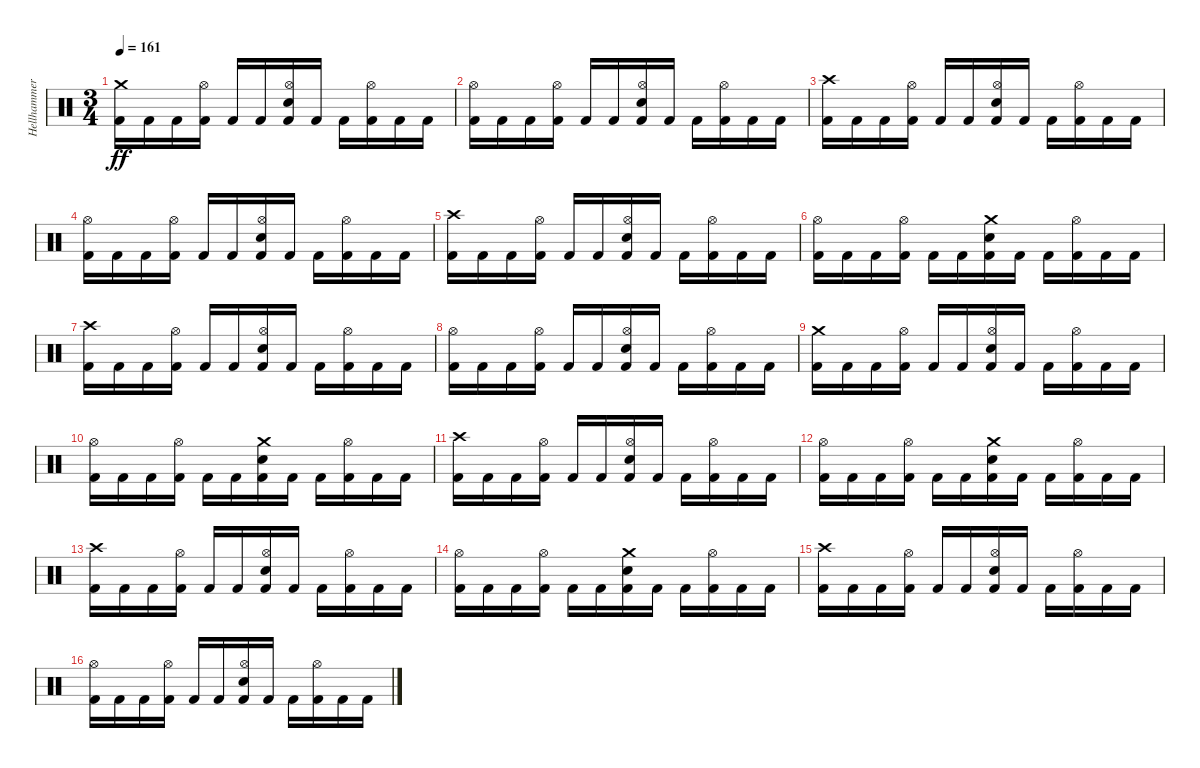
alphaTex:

\track ("Hellhammer" "Hellhammer") {instrument percussion}
\staff {score}
\articulation defaults
\ts (3 4)
\tempo 161
\clef neutral
\ks c
("Crash medium (hit)" "Kick (hit) 2").16{dy ff} "Kick (hit) 2".16 "Kick (hit) 2".16 ("Hi-Hat (open)" "Kick (hit) 2").16 "Kick (hit) 2".16 "Kick (hit) 2".16 ("Hi-Hat (open)" "Snare (hit) 2" "Kick (hit) 2").16 "Kick (hit) 2".16 "Kick (hit) 2".16 ("Hi-Hat (open)" "Kick (hit) 2").16 "Kick (hit) 2".16 "Kick (hit) 2".16 |
("Hi-Hat (open)" "Kick (hit) 2").16 "Kick (hit) 2".16 "Kick (hit) 2".16 ("Hi-Hat (open)" "Kick (hit) 2").16 "Kick (hit) 2".16 "Kick (hit) 2".16 ("Hi-Hat (open)" "Snare (hit) 2" "Kick (hit) 2").16 "Kick (hit) 2".16 "Kick (hit) 2".16 ("Hi-Hat (open)" "Kick (hit) 2").16 "Kick (hit) 2".16 "Kick (hit) 2".16 |
("Crash high (hit)" "Kick (hit) 2").16 "Kick (hit) 2".16 "Kick (hit) 2".16 ("Hi-Hat (open)" "Kick (hit) 2").16 "Kick (hit) 2".16 "Kick (hit) 2".16 ("Hi-Hat (open)" "Snare (hit) 2" "Kick (hit) 2").16 "Kick (hit) 2".16 "Kick (hit) 2".16 ("Hi-Hat (open)" "Kick (hit) 2").16 "Kick (hit) 2".16 "Kick (hit) 2".16 |
("Hi-Hat (open)" "Kick (hit) 2").16 "Kick (hit) 2".16 "Kick (hit) 2".16 ("Hi-Hat (open)" "Kick (hit) 2").16 "Kick (hit) 2".16 "Kick (hit) 2".16 ("Hi-Hat (open)" "Snare (hit) 2" "Kick (hit) 2").16 "Kick (hit) 2".16 "Kick (hit) 2".16 ("Hi-Hat (open)" "Kick (hit) 2").16 "Kick (hit) 2".16 "Kick (hit) 2".16 |
("Crash high (hit)" "Kick (hit) 2").16 "Kick (hit) 2".16 "Kick (hit) 2".16 ("Hi-Hat (open)" "Kick (hit) 2").16 "Kick (hit) 2".16 "Kick (hit) 2".16 ("Hi-Hat (open)" "Snare (hit) 2" "Kick (hit) 2").16 "Kick (hit) 2".16 "Kick (hit) 2".16 ("Hi-Hat (open)" "Kick (hit) 2").16 "Kick (hit) 2".16 "Kick (hit) 2".16 |
("Hi-Hat (open)" "Kick (hit) 2").16 "Kick (hit) 2".16 "Kick (hit) 2".16 ("Hi-Hat (open)" "Kick (hit) 2").16 "Kick (hit) 2".16 "Kick (hit) 2".16 ("Crash medium (hit)" "Snare (hit) 2" "Kick (hit) 2").16 "Kick (hit) 2".16 "Kick (hit) 2".16 ("Hi-Hat (open)" "Kick (hit) 2").16 "Kick (hit) 2".16 "Kick (hit) 2".16 |
("Crash high (hit)" "Kick (hit) 2").16 "Kick (hit) 2".16 "Kick (hit) 2".16 ("Hi-Hat (open)" "Kick (hit) 2").16 "Kick (hit) 2".16 "Kick (hit) 2".16 ("Hi-Hat (open)" "Snare (hit) 2" "Kick (hit) 2").16 "Kick (hit) 2".16 "Kick (hit) 2".16 ("Hi-Hat (open)" "Kick (hit) 2").16 "Kick (hit) 2".16 "Kick (hit) 2".16 |
("Hi-Hat (open)" "Kick (hit) 2").16 "Kick (hit) 2".16 "Kick (hit) 2".16 ("Hi-Hat (open)" "Kick (hit) 2").16 "Kick (hit) 2".16 "Kick (hit) 2".16 ("Hi-Hat (open)" "Snare (hit) 2" "Kick (hit) 2").16 "Kick (hit) 2".16 "Kick (hit) 2".16 ("Hi-Hat (open)" "Kick (hit) 2").16 "Kick (hit) 2".16 "Kick (hit) 2".16 |
("Crash medium (hit)" "Kick (hit) 2").16 "Kick (hit) 2".16 "Kick (hit) 2".16 ("Hi-Hat (open)" "Kick (hit) 2").16 "Kick (hit) 2".16 "Kick (hit) 2".16 ("Hi-Hat (open)" "Snare (hit) 2" "Kick (hit) 2").16 "Kick (hit) 2".16 "Kick (hit) 2".16 ("Hi-Hat (open)" "Kick (hit) 2").16 "Kick (hit) 2".16 "Kick (hit) 2".16 |
("Hi-Hat (open)" "Kick (hit) 2").16 "Kick (hit) 2".16 "Kick (hit) 2".16 ("Hi-Hat (open)" "Kick (hit) 2").16 "Kick (hit) 2".16 "Kick (hit) 2".16 ("Crash medium (hit)" "Snare (hit) 2" "Kick (hit) 2").16 "Kick (hit) 2".16 "Kick (hit) 2".16 ("Hi-Hat (open)" "Kick (hit) 2").16 "Kick (hit) 2".16 "Kick (hit) 2".16 |
("Crash high (hit)" "Kick (hit) 2").16{volume 5} "Kick (hit) 2".16 "Kick (hit) 2".16 ("Hi-Hat (open)" "Kick (hit) 2").16 "Kick (hit) 2".16 "Kick (hit) 2".16 ("Hi-Hat (open)" "Snare (hit) 2" "Kick (hit) 2").16 "Kick (hit) 2".16 "Kick (hit) 2".16 ("Hi-Hat (open)" "Kick (hit) 2").16 "Kick (hit) 2".16 "Kick (hit) 2".16 |
("Hi-Hat (open)" "Kick (hit) 2").16 "Kick (hit) 2".16 "Kick (hit) 2".16 ("Hi-Hat (open)" "Kick (hit) 2").16 "Kick (hit) 2".16 "Kick (hit) 2".16 ("Crash medium (hit)" "Snare (hit) 2" "Kick (hit) 2").16 "Kick (hit) 2".16 "Kick (hit) 2".16 ("Hi-Hat (open)" "Kick (hit) 2").16 "Kick (hit) 2".16 "Kick (hit) 2".16 |
("Crash high (hit)" "Kick (hit) 2").16 "Kick (hit) 2".16 "Kick (hit) 2".16 ("Hi-Hat (open)" "Kick (hit) 2").16 "Kick (hit) 2".16 "Kick (hit) 2".16 ("Hi-Hat (open)" "Snare (hit) 2" "Kick (hit) 2").16 "Kick (hit) 2".16 "Kick (hit) 2".16 ("Hi-Hat (open)" "Kick (hit) 2").16 "Kick (hit) 2".16 "Kick (hit) 2".16 |
("Hi-Hat (open)" "Kick (hit) 2").16 "Kick (hit) 2".16 "Kick (hit) 2".16 ("Hi-Hat (open)" "Kick (hit) 2").16 "Kick (hit) 2".16 "Kick (hit) 2".16 ("Crash medium (hit)" "Snare (hit) 2" "Kick (hit) 2").16 "Kick (hit) 2".16 "Kick (hit) 2".16 ("Hi-Hat (open)" "Kick (hit) 2").16 "Kick (hit) 2".16 "Kick (hit) 2".16 |
("Crash high (hit)" "Kick (hit) 2").16 "Kick (hit) 2".16 "Kick (hit) 2".16 ("Hi-Hat (open)" "Kick (hit) 2").16 "Kick (hit) 2".16 "Kick (hit) 2".16 ("Hi-Hat (open)" "Snare (hit) 2" "Kick (hit) 2").16 "Kick (hit) 2".16 "Kick (hit) 2".16 ("Hi-Hat (open)" "Kick (hit) 2").16 "Kick (hit) 2".16 "Kick (hit) 2".16 |
("Hi-Hat (open)" "Kick (hit) 2").16 "Kick (hit) 2".16 "Kick (hit) 2".16 ("Hi-Hat (open)" "Kick (hit) 2").16 "Kick (hit) 2".16{volume 0} "Kick (hit) 2".16 ("Hi-Hat (open)" "Snare (hit) 2" "Kick (hit) 2").16 "Kick (hit) 2".16 "Kick (hit) 2".16 ("Hi-Hat (open)" "Kick (hit) 2").16 "Kick (hit) 2".16 "Kick (hit) 2".16
